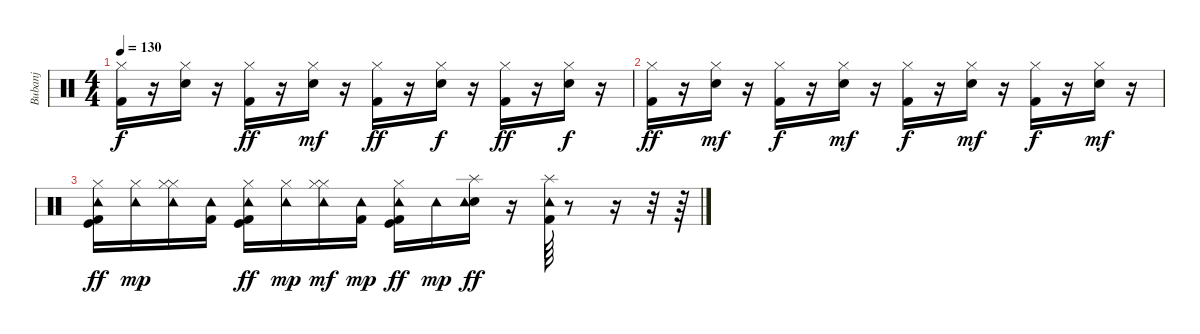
\track ("Bubanj" "Bubanj") {instrument percussion}
\staff {score}
\articulation defaults
\ts (4 4)
\tempo 130
\clef neutral
\ks c
("Kick (hit) 2" "Hi-Hat (closed)").16{dy f} r.16 ("Snare (hit) 2" "Hi-Hat (closed)").16 r.16 ("Kick (hit) 2" "Hi-Hat (closed)").16{dy ff} r.16 ("Snare (hit) 2" "Hi-Hat (closed)").16{dy mf} r.16 ("Kick (hit) 2" "Hi-Hat (closed)").16{dy ff} r.16 ("Snare (hit) 2" "Hi-Hat (closed)").16{dy f} r.16 ("Kick (hit) 2" "Hi-Hat (closed)").16{dy ff} r.16 ("Snare (hit) 2" "Hi-Hat (closed)").16{dy f} r.16 |
("Kick (hit) 2" "Hi-Hat (closed)").16{dy ff} r.16 ("Snare (hit) 2" "Hi-Hat (closed)").16{dy mf} r.16 ("Kick (hit) 2" "Hi-Hat (closed)").16{dy f} r.16 ("Snare (hit) 2" "Hi-Hat (closed)").16{dy mf} r.16 ("Kick (hit) 2" "Hi-Hat (closed)").16{dy f} r.16 ("Snare (hit) 2" "Hi-Hat (closed)").16{dy mf} r.16 ("Kick (hit) 2" "Hi-Hat (closed)").16{dy f} r.16 ("Snare (hit) 2" "Hi-Hat (closed)").16{dy mf} r.16 |
("Kick (hit) 2" "Hi-Hat (closed)" "Tambourine (hit)" "Kick (hit)").16{dy ff} ("Hi-Hat (closed)" "Tambourine (hit)").16{dy mp} ("Hi-Hat (closed)" "Hi-Hat (closed)" "Tambourine (hit)").16 ("Kick (hit) 2" "Tambourine (hit)").16 ("Kick (hit) 2" "Hi-Hat (closed)" "Tambourine (hit)" "Kick (hit)").16{dy ff} ("Hi-Hat (closed)" "Tambourine (hit)").16{dy mp} ("Hi-Hat (closed)" "Hi-Hat (closed)" "Tambourine (hit)").16{dy mf} ("Kick (hit) 2" "Tambourine (hit)").16{dy mp} ("Kick (hit) 2" "Hi-Hat (closed)" "Tambourine (hit)" "Kick (hit)").16{dy ff} "Tambourine (hit)".16{dy mp} ("Snare (hit) 2" "Tambourine (hit)" "Splash (hit)").16{dy ff} r.16 ("Kick (hit) 2" "Tambourine (hit)" "Splash (hit)").64 r.8 r.16 r.32 r.64
